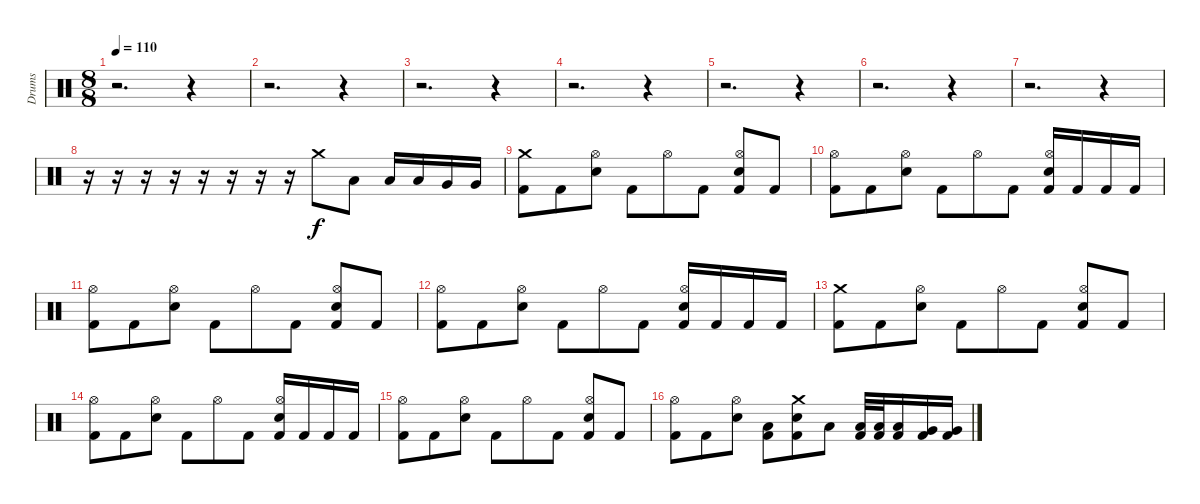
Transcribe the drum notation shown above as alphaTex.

\track ("Drums" "Drums") {instrument percussion}
\staff {score}
\articulation defaults
\ts (8 8)
\tempo 110
\clef neutral
\ks c
r.2{d dy f} r.4 |
r.2{d} r.4 |
r.2{d} r.4 |
r.2{d} r.4 |
r.2{d} r.4 |
r.2{d} r.4 |
r.2{d} r.4 |
r.16 r.16 r.16 r.16 r.16 r.16 r.16 r.16 "Crash medium (hit)".8 "Low Tom (hit)".8 "Low Tom (hit)".16 "Low Tom (hit)".16 "Very Low Tom (hit)".16 "Very Low Tom (hit)".16 |
("Crash medium (hit)" "Kick (hit) 2").8 "Kick (hit) 2".8 ("Hi-Hat (open)" "Electric Snare (hit)").8 "Kick (hit) 2".8 "Hi-Hat (open)".8 "Kick (hit) 2".8 ("Hi-Hat (open)" "Electric Snare (hit)" "Kick (hit) 2").8 "Kick (hit) 2".8 |
("Hi-Hat (open)" "Kick (hit) 2").8 "Kick (hit) 2".8 ("Hi-Hat (open)" "Electric Snare (hit)").8 "Kick (hit) 2".8 "Hi-Hat (open)".8 "Kick (hit) 2".8 ("Hi-Hat (open)" "Electric Snare (hit)" "Kick (hit) 2").16 "Kick (hit) 2".16 "Kick (hit) 2".16 "Kick (hit) 2".16 |
("Hi-Hat (open)" "Kick (hit) 2").8 "Kick (hit) 2".8 ("Hi-Hat (open)" "Electric Snare (hit)").8 "Kick (hit) 2".8 "Hi-Hat (open)".8 "Kick (hit) 2".8 ("Hi-Hat (open)" "Electric Snare (hit)" "Kick (hit) 2").8 "Kick (hit) 2".8 |
("Hi-Hat (open)" "Kick (hit) 2").8 "Kick (hit) 2".8 ("Hi-Hat (open)" "Electric Snare (hit)").8 "Kick (hit) 2".8 "Hi-Hat (open)".8 "Kick (hit) 2".8 ("Hi-Hat (open)" "Electric Snare (hit)" "Kick (hit) 2").16 "Kick (hit) 2".16 "Kick (hit) 2".16 "Kick (hit) 2".16 |
("Crash medium (hit)" "Kick (hit) 2").8 "Kick (hit) 2".8 ("Hi-Hat (open)" "Electric Snare (hit)").8 "Kick (hit) 2".8 "Hi-Hat (open)".8 "Kick (hit) 2".8 ("Hi-Hat (open)" "Electric Snare (hit)" "Kick (hit) 2").8 "Kick (hit) 2".8 |
("Hi-Hat (open)" "Kick (hit) 2").8 "Kick (hit) 2".8 ("Hi-Hat (open)" "Electric Snare (hit)").8 "Kick (hit) 2".8 "Hi-Hat (open)".8 "Kick (hit) 2".8 ("Hi-Hat (open)" "Electric Snare (hit)" "Kick (hit) 2").16 "Kick (hit) 2".16 "Kick (hit) 2".16 "Kick (hit) 2".16 |
("Hi-Hat (open)" "Kick (hit) 2").8 "Kick (hit) 2".8 ("Hi-Hat (open)" "Electric Snare (hit)").8 "Kick (hit) 2".8 "Hi-Hat (open)".8 "Kick (hit) 2".8 ("Hi-Hat (open)" "Electric Snare (hit)" "Kick (hit) 2").8 "Kick (hit) 2".8 |
("Hi-Hat (open)" "Kick (hit) 2").8 "Kick (hit) 2".8 ("Hi-Hat (open)" "Electric Snare (hit)").8 ("Low Tom (hit)" "Kick (hit) 2").8 ("Crash medium (hit)" "Electric Snare (hit)" "Kick (hit) 2").8 "Low Tom (hit)".8 ("Low Tom (hit)" "Kick (hit) 2").32 ("Low Tom (hit)" "Kick (hit) 2").32 ("Low Tom (hit)" "Kick (hit) 2").16 ("Very Low Tom (hit)" "Kick (hit) 2").16 ("Very Low Tom (hit)" "Kick (hit) 2").16
